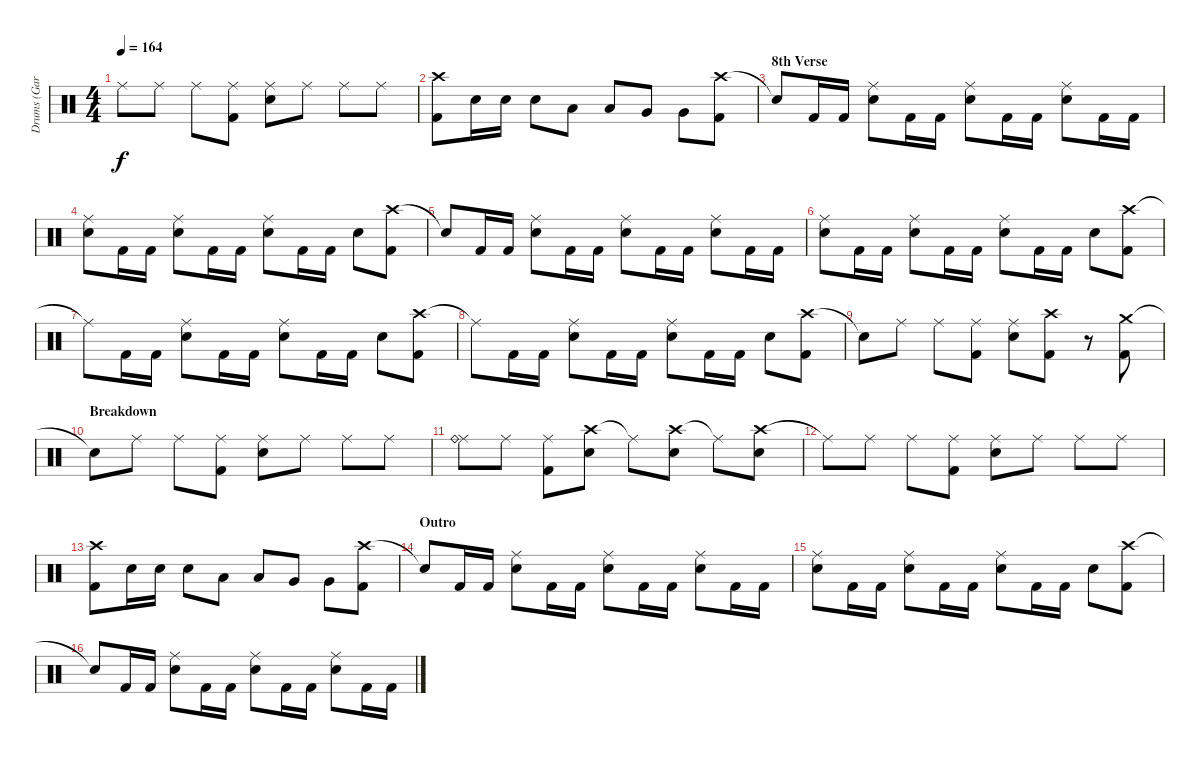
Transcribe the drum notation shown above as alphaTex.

\track ("Drums (Gar Samuelson)" "Drums (Gar") {instrument percussion}
\staff {score}
\articulation defaults
\ts (4 4)
\tempo 164
\clef neutral
\ks c "Ride (middle)"{t}.8{dy f} "Ride (middle)".8 "Ride (middle)".8
("Ride (middle)" "Kick (hit) 2").8 ("Ride (middle)" "Snare (hit) 2").8 "Ride (middle)".8 "Ride (middle)".8 "Ride (middle)".8 |
("Crash high (hit)" "Kick (hit) 2").8 "Snare (hit) 2".16 "Snare (hit) 2".16 "Snare (hit) 2".8 "Low Tom (hit)".8 "Low Tom (hit)".8 "Very Low Tom (hit)".8 "Very Low Tom (hit)".8 ("Crash high (hit)" "Kick (hit) 2").8 |
\section ("" "8th Verse")
"Snare (hit)"{t}.8 "Kick (hit) 2".16 "Kick (hit) 2".16 ("Ride (middle)" "Snare (hit) 2").8 "Kick (hit) 2".16 "Kick (hit) 2".16 ("Ride (middle)" "Snare (hit) 2").8 "Kick (hit) 2".16 "Kick (hit) 2".16 ("Ride (middle)" "Snare (hit) 2").8 "Kick (hit) 2".16 "Kick (hit) 2".16 |
("Ride (middle)" "Snare (hit) 2").8 "Kick (hit) 2".16 "Kick (hit) 2".16 ("Ride (middle)" "Snare (hit) 2").8 "Kick (hit) 2".16 "Kick (hit) 2".16 ("Ride (middle)" "Snare (hit) 2").8 "Kick (hit) 2".16 "Kick (hit) 2".16 "Snare (hit) 2".8 ("Crash high (hit)" "Kick (hit) 2").8 |
"Snare (hit)"{t}.8 "Kick (hit) 2".16 "Kick (hit) 2".16 ("Ride (middle)" "Snare (hit) 2").8 "Kick (hit) 2".16 "Kick (hit) 2".16 ("Ride (middle)" "Snare (hit) 2").8 "Kick (hit) 2".16 "Kick (hit) 2".16 ("Ride (middle)" "Snare (hit) 2").8 "Kick (hit) 2".16 "Kick (hit) 2".16 |
("Ride (middle)" "Snare (hit) 2").8 "Kick (hit) 2".16 "Kick (hit) 2".16 ("Ride (middle)" "Snare (hit) 2").8 "Kick (hit) 2".16 "Kick (hit) 2".16 ("Ride (middle)" "Snare (hit) 2").8 "Kick (hit) 2".16 "Kick (hit) 2".16 "Snare (hit) 2".8 ("Crash high (hit)" "Kick (hit) 2").8 |
"Ride (middle)"{t}.8 "Kick (hit) 2".16 "Kick (hit) 2".16 ("Ride (middle)" "Snare (hit) 2").8 "Kick (hit) 2".16 "Kick (hit) 2".16 ("Ride (middle)" "Snare (hit) 2").8 "Kick (hit) 2".16 "Kick (hit) 2".16 "Snare (hit) 2".8 ("Crash high (hit)" "Kick (hit) 2").8 |
"Ride (middle)"{t}.8 "Kick (hit) 2".16 "Kick (hit) 2".16 ("Ride (middle)" "Snare (hit) 2").8 "Kick (hit) 2".16 "Kick (hit) 2".16 ("Ride (middle)" "Snare (hit) 2").8 "Kick (hit) 2".16 "Kick (hit) 2".16 "Snare (hit) 2".8 ("Crash high (hit)" "Kick (hit) 2").8 |
"Snare (hit)"{t}.8 "Ride (middle)".8 "Ride (middle)".8 ("Ride (middle)" "Kick (hit) 2").8 ("Ride (middle)" "Snare (hit) 2").8 ("Crash high (hit)" "Kick (hit) 2").8 r.8 ("Crash medium (hit)" "Kick (hit) 2").8 |
\section ("" "Breakdown")
"Snare (hit)"{t}.8 "Ride (middle)".8 "Ride (middle)".8 ("Ride (middle)" "Kick (hit) 2").8 ("Ride (middle)" "Snare (hit) 2").8 "Ride (middle)".8 "Ride (middle)".8 "Ride (middle)".8 |
("Ride (middle)" "Ride (bell)").8 "Ride (middle)".8 ("Ride (middle)" "Kick (hit) 2").8 ("Crash high (hit)" "Snare (hit) 2").8 "Ride (middle)"{t}.8 ("Crash high (hit)" "Snare (hit) 2").8 "Ride (middle)"{t}.8 ("Crash high (hit)" "Snare (hit) 2").8 |
"Ride (middle)"{t}.8 "Ride (middle)".8 "Ride (middle)".8 ("Ride (middle)" "Kick (hit) 2").8 ("Ride (middle)" "Snare (hit) 2").8 "Ride (middle)".8 "Ride (middle)".8 "Ride (middle)".8 |
("Crash high (hit)" "Kick (hit) 2").8 "Snare (hit) 2".16 "Snare (hit) 2".16 "Snare (hit) 2".8 "Low Tom (hit)".8 "Low Tom (hit)".8 "Very Low Tom (hit)".8 "Very Low Tom (hit)".8 ("Crash high (hit)" "Kick (hit) 2").8 |
\section ("" "Outro")
"Snare (hit)"{t}.8 "Kick (hit) 2".16 "Kick (hit) 2".16 ("Ride (middle)" "Snare (hit) 2").8 "Kick (hit) 2".16 "Kick (hit) 2".16 ("Ride (middle)" "Snare (hit) 2").8 "Kick (hit) 2".16 "Kick (hit) 2".16 ("Ride (middle)" "Snare (hit) 2").8 "Kick (hit) 2".16 "Kick (hit) 2".16 |
("Ride (middle)" "Snare (hit) 2").8 "Kick (hit) 2".16 "Kick (hit) 2".16 ("Ride (middle)" "Snare (hit) 2").8 "Kick (hit) 2".16 "Kick (hit) 2".16 ("Ride (middle)" "Snare (hit) 2").8 "Kick (hit) 2".16 "Kick (hit) 2".16 "Snare (hit) 2".8 ("Crash high (hit)" "Kick (hit) 2").8 |
"Snare (hit)"{t}.8 "Kick (hit) 2".16 "Kick (hit) 2".16 ("Ride (middle)" "Snare (hit) 2").8 "Kick (hit) 2".16 "Kick (hit) 2".16 ("Ride (middle)" "Snare (hit) 2").8 "Kick (hit) 2".16 "Kick (hit) 2".16 ("Ride (middle)" "Snare (hit) 2").8 "Kick (hit) 2".16 "Kick (hit) 2".16
